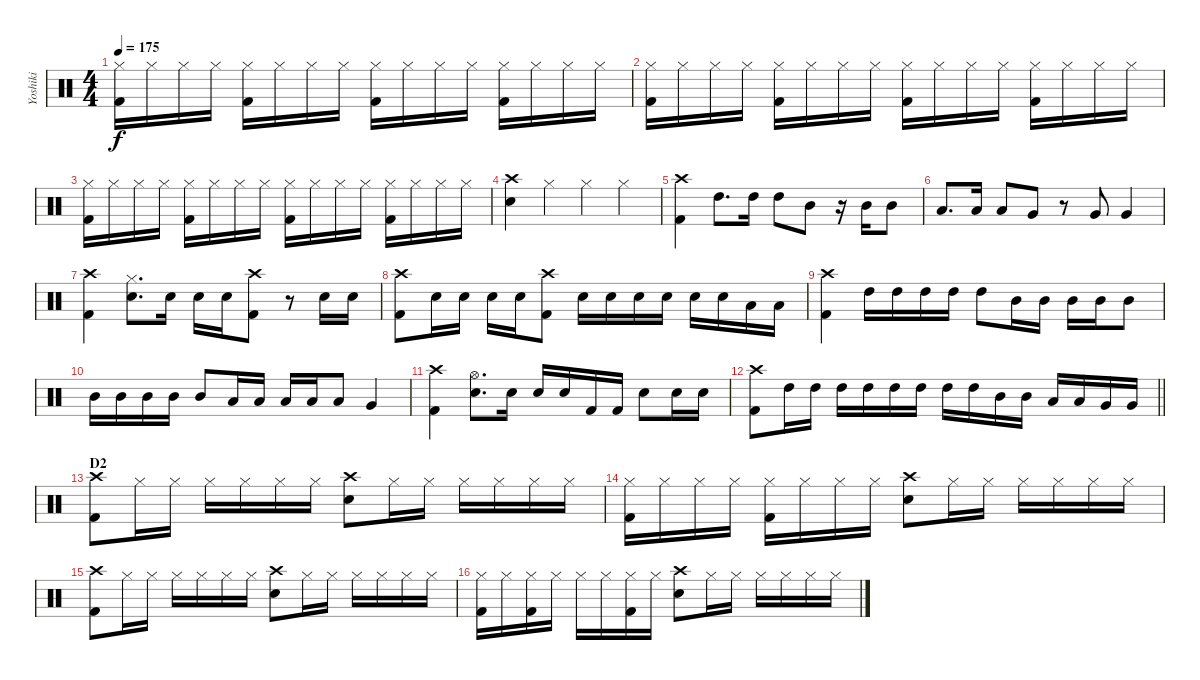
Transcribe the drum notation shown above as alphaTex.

\track ("Yoshiki" "Yoshiki") {instrument percussion}
\staff {score}
\articulation defaults
\ts (4 4)
\tempo 175
\clef neutral
\ks c
("Hi-Hat (closed)" "Kick (hit) 2").16{dy f} "Hi-Hat (closed)".16 "Hi-Hat (closed)".16 "Hi-Hat (closed)".16 ("Hi-Hat (closed)" "Kick (hit) 2").16 "Hi-Hat (closed)".16 "Hi-Hat (closed)".16 "Hi-Hat (closed)".16 ("Hi-Hat (closed)" "Kick (hit) 2").16 "Hi-Hat (closed)".16 "Hi-Hat (closed)".16 "Hi-Hat (closed)".16 ("Hi-Hat (closed)" "Kick (hit) 2").16 "Hi-Hat (closed)".16 "Hi-Hat (closed)".16 "Hi-Hat (closed)".16 |
("Hi-Hat (closed)" "Kick (hit) 2").16 "Hi-Hat (closed)".16 "Hi-Hat (closed)".16 "Hi-Hat (closed)".16 ("Hi-Hat (closed)" "Kick (hit) 2").16 "Hi-Hat (closed)".16 "Hi-Hat (closed)".16 "Hi-Hat (closed)".16 ("Hi-Hat (closed)" "Kick (hit) 2").16 "Hi-Hat (closed)".16 "Hi-Hat (closed)".16 "Hi-Hat (closed)".16 ("Hi-Hat (closed)" "Kick (hit) 2").16 "Hi-Hat (closed)".16 "Hi-Hat (closed)".16 "Hi-Hat (closed)".16 |
("Hi-Hat (closed)" "Kick (hit) 2").16 "Hi-Hat (closed)".16 "Hi-Hat (closed)".16 "Hi-Hat (closed)".16 ("Hi-Hat (closed)" "Kick (hit) 2").16 "Hi-Hat (closed)".16 "Hi-Hat (closed)".16 "Hi-Hat (closed)".16 ("Hi-Hat (closed)" "Kick (hit) 2").16 "Hi-Hat (closed)".16 "Hi-Hat (closed)".16 "Hi-Hat (closed)".16 ("Hi-Hat (closed)" "Kick (hit) 2").16 "Hi-Hat (closed)".16 "Hi-Hat (closed)".16 "Hi-Hat (closed)".16 |
("Crash high (hit)" "Electric Snare (hit)").4 "Hi-Hat (closed)".4 "Hi-Hat (closed)".4 "Hi-Hat (closed)".4 |
("Crash high (hit)" "Kick (hit) 2").4 "High Tom (hit)".8{d} "High Tom (hit)".16 "High Tom (hit)".8 "Mid Tom (hit)".8 r.16 "Mid Tom (hit)".16 "Mid Tom (hit)".8 |
"Low Tom (hit)".8{d} "Low Tom (hit)".16 "Low Tom (hit)".8 "Very Low Tom (hit)".8 r.8 "Very Low Tom (hit)".8 "Very Low Tom (hit)".4 |
("Crash high (hit)" "Kick (hit) 2").4 ("Hi-Hat (closed)" "Electric Snare (hit)").8{d} "Electric Snare (hit)".16 "Electric Snare (hit)".16 "Electric Snare (hit)".16 ("Crash high (hit)" "Kick (hit) 2").8 r.8 "Electric Snare (hit)".16 "Electric Snare (hit)".16 |
("Crash high (hit)" "Kick (hit) 2").8 "Electric Snare (hit)".16 "Electric Snare (hit)".16 "Electric Snare (hit)".16 "Electric Snare (hit)".16 ("Crash high (hit)" "Kick (hit) 2").8 "Electric Snare (hit)".16 "Electric Snare (hit)".16 "Electric Snare (hit)".16 "Electric Snare (hit)".16 "Electric Snare (hit)".16 "Electric Snare (hit)".16 "Low Tom (hit)".16 "Low Tom (hit)".16 |
("Crash high (hit)" "Kick (hit) 2").4 "High Tom (hit)".16 "High Tom (hit)".16 "High Tom (hit)".16 "High Tom (hit)".16 "High Tom (hit)".8 "Mid Tom (hit)".16 "Mid Tom (hit)".16 "Mid Tom (hit)".16 "Mid Tom (hit)".16 "Mid Tom (hit)".8 |
"Mid Tom (hit)".16 "Mid Tom (hit)".16 "Mid Tom (hit)".16 "Mid Tom (hit)".16 "Mid Tom (hit)".8 "Low Tom (hit)".16 "Low Tom (hit)".16 "Low Tom (hit)".16 "Low Tom (hit)".16 "Low Tom (hit)".8 "Very Low Tom (hit)".4 |
("Crash high (hit)" "Kick (hit) 2").4 ("Hi-Hat (open)" "Electric Snare (hit)").8{d} "Electric Snare (hit)".16 "Electric Snare (hit)".16 "Electric Snare (hit)".16 "Kick (hit) 2".16 "Kick (hit) 2".16 "Electric Snare (hit)".8 "Electric Snare (hit)".16 "Electric Snare (hit)".16 |
\barLineRight lightlight
("Crash high (hit)" "Kick (hit) 2").8 "High Tom (hit)".16 "High Tom (hit)".16 "High Tom (hit)".16 "High Tom (hit)".16 "High Tom (hit)".16 "High Tom (hit)".16 "High Tom (hit)".16 "High Tom (hit)".16 "Mid Tom (hit)".16 "Mid Tom (hit)".16 "Low Tom (hit)".16 "Low Tom (hit)".16 "Very Low Tom (hit)".16 "Very Low Tom (hit)".16 |
\section ("" "D2")
("Crash high (hit)" "Kick (hit) 2").8 "Hi-Hat (closed)".16 "Hi-Hat (closed)".16 "Hi-Hat (closed)".16 "Hi-Hat (closed)".16 "Hi-Hat (closed)".16 "Hi-Hat (closed)".16 ("Crash high (hit)" "Electric Snare (hit)").8 "Hi-Hat (closed)".16 "Hi-Hat (closed)".16 "Hi-Hat (closed)".16 "Hi-Hat (closed)".16 "Hi-Hat (closed)".16 "Hi-Hat (closed)".16 |
("Hi-Hat (closed)" "Kick (hit) 2").16 "Hi-Hat (closed)".16 "Hi-Hat (closed)".16 "Hi-Hat (closed)".16 ("Hi-Hat (closed)" "Kick (hit) 2").16 "Hi-Hat (closed)".16 "Hi-Hat (closed)".16 "Hi-Hat (closed)".16 ("Crash high (hit)" "Electric Snare (hit)").8 "Hi-Hat (closed)".16 "Hi-Hat (closed)".16 "Hi-Hat (closed)".16 "Hi-Hat (closed)".16 "Hi-Hat (closed)".16 "Hi-Hat (closed)".16 |
("Crash high (hit)" "Kick (hit) 2").8 "Hi-Hat (closed)".16 "Hi-Hat (closed)".16 "Hi-Hat (closed)".16 "Hi-Hat (closed)".16 "Hi-Hat (closed)".16 "Hi-Hat (closed)".16 ("Crash high (hit)" "Electric Snare (hit)").8 "Hi-Hat (closed)".16 "Hi-Hat (closed)".16 "Hi-Hat (closed)".16 "Hi-Hat (closed)".16 "Hi-Hat (closed)".16 "Hi-Hat (closed)".16 |
("Hi-Hat (closed)" "Kick (hit) 2").16 "Hi-Hat (closed)".16 ("Hi-Hat (closed)" "Kick (hit) 2").16 "Hi-Hat (closed)".16 "Hi-Hat (closed)".16 "Hi-Hat (closed)".16 ("Hi-Hat (closed)" "Kick (hit) 2").16 "Hi-Hat (closed)".16 ("Crash high (hit)" "Electric Snare (hit)").8 "Hi-Hat (closed)".16 "Hi-Hat (closed)".16 "Hi-Hat (closed)".16 "Hi-Hat (closed)".16 "Hi-Hat (closed)".16 "Hi-Hat (closed)".16
